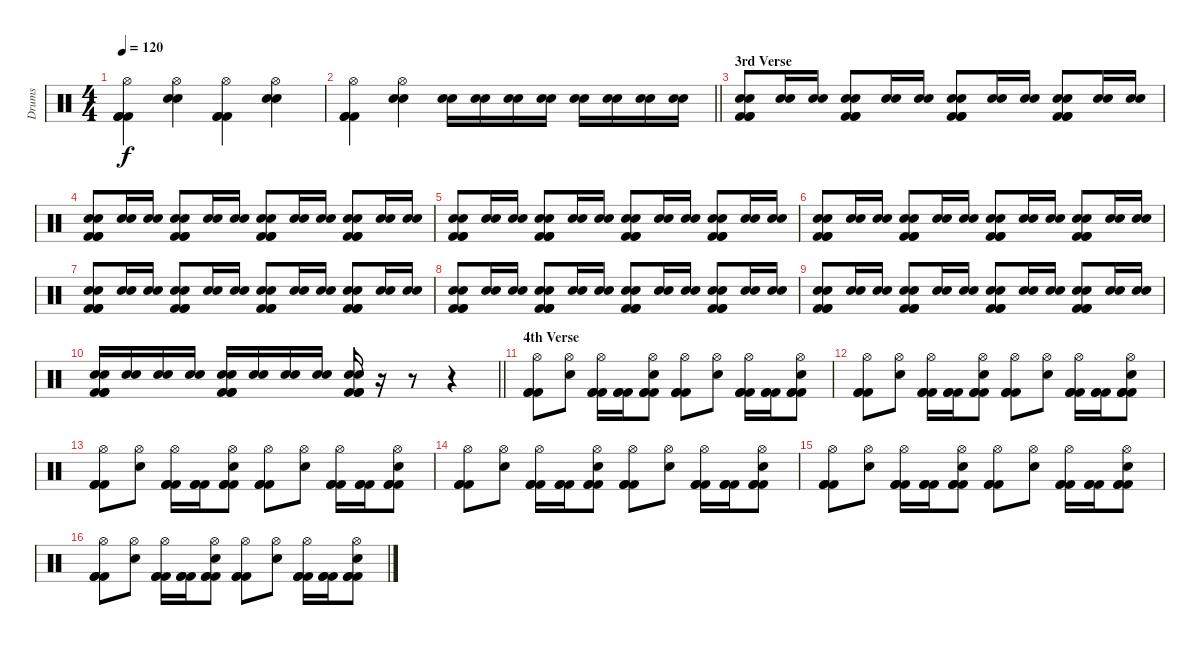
\track ("Drums" "Drums") {instrument percussion}
\staff {score}
\articulation defaults
\ts (4 4)
\tempo 120
\clef neutral
\ks c
("Hi-Hat (open)" "Kick (hit) 2" "Kick (hit) 2" "Kick (hit) 2").4{dy f} ("Hi-Hat (open)" "Snare (hit) 2" "Snare (hit) 2").4 ("Hi-Hat (open)" "Kick (hit) 2" "Kick (hit) 2" "Kick (hit) 2").4 ("Hi-Hat (open)" "Snare (hit) 2" "Snare (hit) 2").4 |
\barLineRight lightlight
("Hi-Hat (open)" "Kick (hit) 2" "Kick (hit) 2" "Kick (hit) 2").4 ("Hi-Hat (open)" "Snare (hit) 2" "Snare (hit) 2").4 ("Snare (hit) 2" "Snare (hit) 2").16 ("Snare (hit) 2" "Snare (hit) 2").16 ("Snare (hit) 2" "Snare (hit) 2").16 ("Snare (hit) 2" "Snare (hit) 2").16 ("Snare (hit) 2" "Snare (hit) 2").16 ("Snare (hit) 2" "Snare (hit) 2").16 ("Snare (hit) 2" "Snare (hit) 2").16 ("Snare (hit) 2" "Snare (hit) 2").16 |
\section ("" "3rd Verse")
("Snare (hit) 2" "Snare (hit) 2" "Kick (hit) 2" "Kick (hit) 2" "Kick (hit) 2").8 ("Snare (hit) 2" "Snare (hit) 2").16 ("Snare (hit) 2" "Snare (hit) 2").16 ("Snare (hit) 2" "Snare (hit) 2" "Kick (hit) 2" "Kick (hit) 2" "Kick (hit) 2").8 ("Snare (hit) 2" "Snare (hit) 2").16 ("Snare (hit) 2" "Snare (hit) 2").16 ("Snare (hit) 2" "Snare (hit) 2" "Kick (hit) 2" "Kick (hit) 2" "Kick (hit) 2").8 ("Snare (hit) 2" "Snare (hit) 2").16 ("Snare (hit) 2" "Snare (hit) 2").16 ("Snare (hit) 2" "Snare (hit) 2" "Kick (hit) 2" "Kick (hit) 2" "Kick (hit) 2").8 ("Snare (hit) 2" "Snare (hit) 2").16 ("Snare (hit) 2" "Snare (hit) 2").16 |
("Snare (hit) 2" "Snare (hit) 2" "Kick (hit) 2" "Kick (hit) 2" "Kick (hit) 2").8 ("Snare (hit) 2" "Snare (hit) 2").16 ("Snare (hit) 2" "Snare (hit) 2").16 ("Snare (hit) 2" "Snare (hit) 2" "Kick (hit) 2" "Kick (hit) 2" "Kick (hit) 2").8 ("Snare (hit) 2" "Snare (hit) 2").16 ("Snare (hit) 2" "Snare (hit) 2").16 ("Snare (hit) 2" "Snare (hit) 2" "Kick (hit) 2" "Kick (hit) 2" "Kick (hit) 2").8 ("Snare (hit) 2" "Snare (hit) 2").16 ("Snare (hit) 2" "Snare (hit) 2").16 ("Snare (hit) 2" "Snare (hit) 2" "Kick (hit) 2" "Kick (hit) 2" "Kick (hit) 2").8 ("Snare (hit) 2" "Snare (hit) 2").16 ("Snare (hit) 2" "Snare (hit) 2").16 |
("Snare (hit) 2" "Snare (hit) 2" "Kick (hit) 2" "Kick (hit) 2" "Kick (hit) 2").8 ("Snare (hit) 2" "Snare (hit) 2").16 ("Snare (hit) 2" "Snare (hit) 2").16 ("Snare (hit) 2" "Snare (hit) 2" "Kick (hit) 2" "Kick (hit) 2" "Kick (hit) 2").8 ("Snare (hit) 2" "Snare (hit) 2").16 ("Snare (hit) 2" "Snare (hit) 2").16 ("Snare (hit) 2" "Snare (hit) 2" "Kick (hit) 2" "Kick (hit) 2" "Kick (hit) 2").8 ("Snare (hit) 2" "Snare (hit) 2").16 ("Snare (hit) 2" "Snare (hit) 2").16 ("Snare (hit) 2" "Snare (hit) 2" "Kick (hit) 2" "Kick (hit) 2" "Kick (hit) 2").8 ("Snare (hit) 2" "Snare (hit) 2").16 ("Snare (hit) 2" "Snare (hit) 2").16 |
("Snare (hit) 2" "Snare (hit) 2" "Kick (hit) 2" "Kick (hit) 2" "Kick (hit) 2").8 ("Snare (hit) 2" "Snare (hit) 2").16 ("Snare (hit) 2" "Snare (hit) 2").16 ("Snare (hit) 2" "Snare (hit) 2" "Kick (hit) 2" "Kick (hit) 2" "Kick (hit) 2").8 ("Snare (hit) 2" "Snare (hit) 2").16 ("Snare (hit) 2" "Snare (hit) 2").16 ("Snare (hit) 2" "Snare (hit) 2" "Kick (hit) 2" "Kick (hit) 2" "Kick (hit) 2").8 ("Snare (hit) 2" "Snare (hit) 2").16 ("Snare (hit) 2" "Snare (hit) 2").16 ("Snare (hit) 2" "Snare (hit) 2" "Kick (hit) 2" "Kick (hit) 2" "Kick (hit) 2").8 ("Snare (hit) 2" "Snare (hit) 2").16 ("Snare (hit) 2" "Snare (hit) 2").16 |
("Snare (hit) 2" "Snare (hit) 2" "Kick (hit) 2" "Kick (hit) 2" "Kick (hit) 2").8 ("Snare (hit) 2" "Snare (hit) 2").16 ("Snare (hit) 2" "Snare (hit) 2").16 ("Snare (hit) 2" "Snare (hit) 2" "Kick (hit) 2" "Kick (hit) 2" "Kick (hit) 2").8 ("Snare (hit) 2" "Snare (hit) 2").16 ("Snare (hit) 2" "Snare (hit) 2").16 ("Snare (hit) 2" "Snare (hit) 2" "Kick (hit) 2" "Kick (hit) 2" "Kick (hit) 2").8 ("Snare (hit) 2" "Snare (hit) 2").16 ("Snare (hit) 2" "Snare (hit) 2").16 ("Snare (hit) 2" "Snare (hit) 2" "Kick (hit) 2" "Kick (hit) 2" "Kick (hit) 2").8 ("Snare (hit) 2" "Snare (hit) 2").16 ("Snare (hit) 2" "Snare (hit) 2").16 |
("Snare (hit) 2" "Snare (hit) 2" "Kick (hit) 2" "Kick (hit) 2" "Kick (hit) 2").8 ("Snare (hit) 2" "Snare (hit) 2").16 ("Snare (hit) 2" "Snare (hit) 2").16 ("Snare (hit) 2" "Snare (hit) 2" "Kick (hit) 2" "Kick (hit) 2" "Kick (hit) 2").8 ("Snare (hit) 2" "Snare (hit) 2").16 ("Snare (hit) 2" "Snare (hit) 2").16 ("Snare (hit) 2" "Snare (hit) 2" "Kick (hit) 2" "Kick (hit) 2" "Kick (hit) 2").8 ("Snare (hit) 2" "Snare (hit) 2").16 ("Snare (hit) 2" "Snare (hit) 2").16 ("Snare (hit) 2" "Snare (hit) 2" "Kick (hit) 2" "Kick (hit) 2" "Kick (hit) 2").8 ("Snare (hit) 2" "Snare (hit) 2").16 ("Snare (hit) 2" "Snare (hit) 2").16 |
("Snare (hit) 2" "Snare (hit) 2" "Kick (hit) 2" "Kick (hit) 2" "Kick (hit) 2").8 ("Snare (hit) 2" "Snare (hit) 2").16 ("Snare (hit) 2" "Snare (hit) 2").16 ("Snare (hit) 2" "Snare (hit) 2" "Kick (hit) 2" "Kick (hit) 2" "Kick (hit) 2").8 ("Snare (hit) 2" "Snare (hit) 2").16 ("Snare (hit) 2" "Snare (hit) 2").16 ("Snare (hit) 2" "Snare (hit) 2" "Kick (hit) 2" "Kick (hit) 2" "Kick (hit) 2").8 ("Snare (hit) 2" "Snare (hit) 2").16 ("Snare (hit) 2" "Snare (hit) 2").16 ("Snare (hit) 2" "Snare (hit) 2" "Kick (hit) 2" "Kick (hit) 2" "Kick (hit) 2").8 ("Snare (hit) 2" "Snare (hit) 2").16 ("Snare (hit) 2" "Snare (hit) 2").16 |
\barLineRight lightlight
("Snare (hit) 2" "Snare (hit) 2" "Kick (hit) 2" "Kick (hit) 2" "Kick (hit) 2").16 ("Snare (hit) 2" "Snare (hit) 2").16 ("Snare (hit) 2" "Snare (hit) 2").16 ("Snare (hit) 2" "Snare (hit) 2").16 ("Snare (hit) 2" "Snare (hit) 2" "Kick (hit) 2" "Kick (hit) 2" "Kick (hit) 2").16 ("Snare (hit) 2" "Snare (hit) 2").16 ("Snare (hit) 2" "Snare (hit) 2").16 ("Snare (hit) 2" "Snare (hit) 2").16 ("Snare (hit) 2" "Snare (hit) 2" "Kick (hit) 2" "Kick (hit) 2" "Kick (hit) 2").16 r.16 r.8 r.4 |
\section ("" "4th Verse")
("Hi-Hat (open)" "Kick (hit) 2" "Kick (hit) 2" "Kick (hit) 2").8 ("Hi-Hat (open)" "Snare (hit) 2").8 ("Hi-Hat (open)" "Kick (hit) 2" "Kick (hit) 2" "Kick (hit) 2").16 ("Kick (hit) 2" "Kick (hit) 2" "Kick (hit) 2").16 ("Hi-Hat (open)" "Snare (hit) 2" "Kick (hit) 2" "Kick (hit) 2" "Kick (hit) 2").8 ("Hi-Hat (open)" "Kick (hit) 2" "Kick (hit) 2" "Kick (hit) 2").8 ("Hi-Hat (open)" "Snare (hit) 2").8 ("Hi-Hat (open)" "Kick (hit) 2" "Kick (hit) 2" "Kick (hit) 2").16 ("Kick (hit) 2" "Kick (hit) 2" "Kick (hit) 2").16 ("Hi-Hat (open)" "Snare (hit) 2" "Kick (hit) 2" "Kick (hit) 2" "Kick (hit) 2").8 |
("Hi-Hat (open)" "Kick (hit) 2" "Kick (hit) 2" "Kick (hit) 2").8 ("Hi-Hat (open)" "Snare (hit) 2").8 ("Hi-Hat (open)" "Kick (hit) 2" "Kick (hit) 2" "Kick (hit) 2").16 ("Kick (hit) 2" "Kick (hit) 2" "Kick (hit) 2").16 ("Hi-Hat (open)" "Snare (hit) 2" "Kick (hit) 2" "Kick (hit) 2" "Kick (hit) 2").8 ("Hi-Hat (open)" "Kick (hit) 2" "Kick (hit) 2" "Kick (hit) 2").8 ("Hi-Hat (open)" "Snare (hit) 2").8 ("Hi-Hat (open)" "Kick (hit) 2" "Kick (hit) 2" "Kick (hit) 2").16 ("Kick (hit) 2" "Kick (hit) 2" "Kick (hit) 2").16 ("Hi-Hat (open)" "Snare (hit) 2" "Kick (hit) 2" "Kick (hit) 2" "Kick (hit) 2").8 |
("Hi-Hat (open)" "Kick (hit) 2" "Kick (hit) 2" "Kick (hit) 2").8 ("Hi-Hat (open)" "Snare (hit) 2").8 ("Hi-Hat (open)" "Kick (hit) 2" "Kick (hit) 2" "Kick (hit) 2").16 ("Kick (hit) 2" "Kick (hit) 2" "Kick (hit) 2").16 ("Hi-Hat (open)" "Snare (hit) 2" "Kick (hit) 2" "Kick (hit) 2" "Kick (hit) 2").8 ("Hi-Hat (open)" "Kick (hit) 2" "Kick (hit) 2" "Kick (hit) 2").8 ("Hi-Hat (open)" "Snare (hit) 2").8 ("Hi-Hat (open)" "Kick (hit) 2" "Kick (hit) 2" "Kick (hit) 2").16 ("Kick (hit) 2" "Kick (hit) 2" "Kick (hit) 2").16 ("Hi-Hat (open)" "Snare (hit) 2" "Kick (hit) 2" "Kick (hit) 2" "Kick (hit) 2").8 |
("Hi-Hat (open)" "Kick (hit) 2" "Kick (hit) 2" "Kick (hit) 2").8 ("Hi-Hat (open)" "Snare (hit) 2").8 ("Hi-Hat (open)" "Kick (hit) 2" "Kick (hit) 2" "Kick (hit) 2").16 ("Kick (hit) 2" "Kick (hit) 2" "Kick (hit) 2").16 ("Hi-Hat (open)" "Snare (hit) 2" "Kick (hit) 2" "Kick (hit) 2" "Kick (hit) 2").8 ("Hi-Hat (open)" "Kick (hit) 2" "Kick (hit) 2" "Kick (hit) 2").8 ("Hi-Hat (open)" "Snare (hit) 2").8 ("Hi-Hat (open)" "Kick (hit) 2" "Kick (hit) 2" "Kick (hit) 2").16 ("Kick (hit) 2" "Kick (hit) 2" "Kick (hit) 2").16 ("Hi-Hat (open)" "Snare (hit) 2" "Kick (hit) 2" "Kick (hit) 2" "Kick (hit) 2").8 |
("Hi-Hat (open)" "Kick (hit) 2" "Kick (hit) 2" "Kick (hit) 2").8 ("Hi-Hat (open)" "Snare (hit) 2").8 ("Hi-Hat (open)" "Kick (hit) 2" "Kick (hit) 2" "Kick (hit) 2").16 ("Kick (hit) 2" "Kick (hit) 2" "Kick (hit) 2").16 ("Hi-Hat (open)" "Snare (hit) 2" "Kick (hit) 2" "Kick (hit) 2" "Kick (hit) 2").8 ("Hi-Hat (open)" "Kick (hit) 2" "Kick (hit) 2" "Kick (hit) 2").8 ("Hi-Hat (open)" "Snare (hit) 2").8 ("Hi-Hat (open)" "Kick (hit) 2" "Kick (hit) 2" "Kick (hit) 2").16 ("Kick (hit) 2" "Kick (hit) 2" "Kick (hit) 2").16 ("Hi-Hat (open)" "Snare (hit) 2" "Kick (hit) 2" "Kick (hit) 2" "Kick (hit) 2").8 |
("Hi-Hat (open)" "Kick (hit) 2" "Kick (hit) 2" "Kick (hit) 2").8 ("Hi-Hat (open)" "Snare (hit) 2").8 ("Hi-Hat (open)" "Kick (hit) 2" "Kick (hit) 2" "Kick (hit) 2").16 ("Kick (hit) 2" "Kick (hit) 2" "Kick (hit) 2").16 ("Hi-Hat (open)" "Snare (hit) 2" "Kick (hit) 2" "Kick (hit) 2" "Kick (hit) 2").8 ("Hi-Hat (open)" "Kick (hit) 2" "Kick (hit) 2" "Kick (hit) 2").8 ("Hi-Hat (open)" "Snare (hit) 2").8 ("Hi-Hat (open)" "Kick (hit) 2" "Kick (hit) 2" "Kick (hit) 2").16 ("Kick (hit) 2" "Kick (hit) 2" "Kick (hit) 2").16 ("Hi-Hat (open)" "Snare (hit) 2" "Kick (hit) 2" "Kick (hit) 2" "Kick (hit) 2").8
